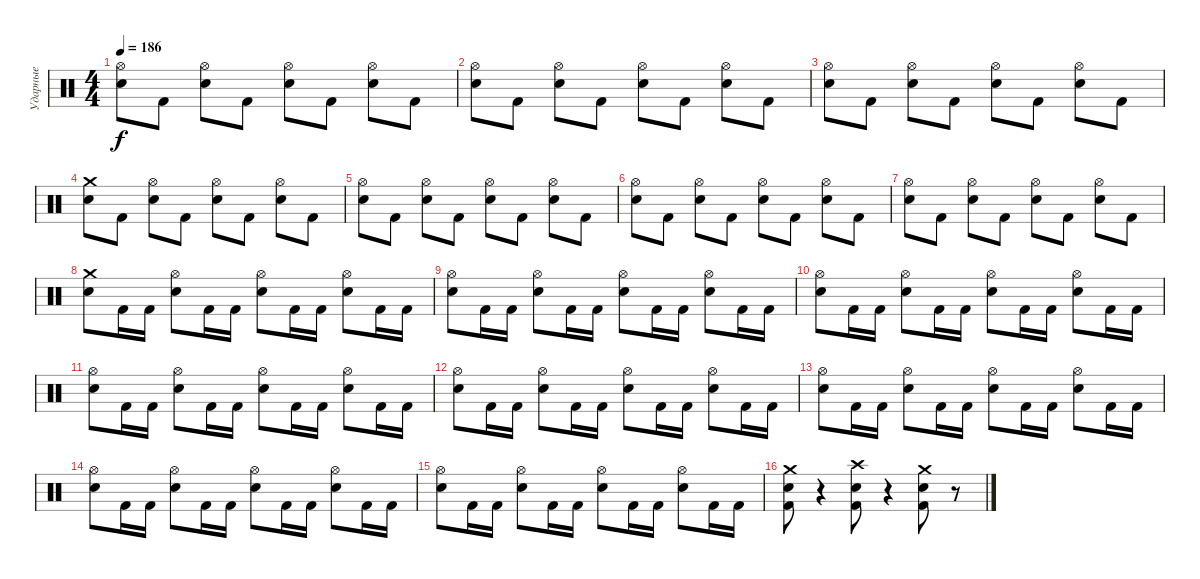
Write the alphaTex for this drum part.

\track ("Ударные" "Ударные") {instrument percussion}
\staff {score}
\articulation defaults
\ts (4 4)
\tempo 186
\clef neutral
\ks c
("Snare (hit) 2" "Hi-Hat (open)").8{dy f} "Kick (hit) 2".8 ("Snare (hit) 2" "Hi-Hat (open)").8 "Kick (hit) 2".8 ("Snare (hit) 2" "Hi-Hat (open)").8 "Kick (hit) 2".8 ("Snare (hit) 2" "Hi-Hat (open)").8 "Kick (hit) 2".8 |
("Snare (hit) 2" "Hi-Hat (open)").8 "Kick (hit) 2".8 ("Snare (hit) 2" "Hi-Hat (open)").8 "Kick (hit) 2".8 ("Snare (hit) 2" "Hi-Hat (open)").8 "Kick (hit) 2".8 ("Snare (hit) 2" "Hi-Hat (open)").8 "Kick (hit) 2".8 |
("Snare (hit) 2" "Hi-Hat (open)").8 "Kick (hit) 2".8 ("Snare (hit) 2" "Hi-Hat (open)").8 "Kick (hit) 2".8 ("Snare (hit) 2" "Hi-Hat (open)").8 "Kick (hit) 2".8 ("Snare (hit) 2" "Hi-Hat (open)").8 "Kick (hit) 2".8 |
("Snare (hit) 2" "Crash medium (hit)").8 "Kick (hit) 2".8 ("Snare (hit) 2" "Hi-Hat (open)").8 "Kick (hit) 2".8 ("Snare (hit) 2" "Hi-Hat (open)").8 "Kick (hit) 2".8 ("Snare (hit) 2" "Hi-Hat (open)").8 "Kick (hit) 2".8 |
("Snare (hit) 2" "Hi-Hat (open)").8 "Kick (hit) 2".8 ("Snare (hit) 2" "Hi-Hat (open)").8 "Kick (hit) 2".8 ("Snare (hit) 2" "Hi-Hat (open)").8 "Kick (hit) 2".8 ("Snare (hit) 2" "Hi-Hat (open)").8 "Kick (hit) 2".8 |
("Snare (hit) 2" "Hi-Hat (open)").8 "Kick (hit) 2".8 ("Snare (hit) 2" "Hi-Hat (open)").8 "Kick (hit) 2".8 ("Snare (hit) 2" "Hi-Hat (open)").8 "Kick (hit) 2".8 ("Snare (hit) 2" "Hi-Hat (open)").8 "Kick (hit) 2".8 |
("Snare (hit) 2" "Hi-Hat (open)").8 "Kick (hit) 2".8 ("Snare (hit) 2" "Hi-Hat (open)").8 "Kick (hit) 2".8 ("Snare (hit) 2" "Hi-Hat (open)").8 "Kick (hit) 2".8 ("Snare (hit) 2" "Hi-Hat (open)").8 "Kick (hit) 2".8 |
("Snare (hit) 2" "Crash medium (hit)").8 "Kick (hit) 2".16 "Kick (hit) 2".16 ("Snare (hit) 2" "Hi-Hat (open)").8 "Kick (hit) 2".16 "Kick (hit) 2".16 ("Snare (hit) 2" "Hi-Hat (open)").8 "Kick (hit) 2".16 "Kick (hit) 2".16 ("Snare (hit) 2" "Hi-Hat (open)").8 "Kick (hit) 2".16 "Kick (hit) 2".16 |
("Snare (hit) 2" "Hi-Hat (open)").8 "Kick (hit) 2".16 "Kick (hit) 2".16 ("Snare (hit) 2" "Hi-Hat (open)").8 "Kick (hit) 2".16 "Kick (hit) 2".16 ("Snare (hit) 2" "Hi-Hat (open)").8 "Kick (hit) 2".16 "Kick (hit) 2".16 ("Snare (hit) 2" "Hi-Hat (open)").8 "Kick (hit) 2".16 "Kick (hit) 2".16 |
("Snare (hit) 2" "Hi-Hat (open)").8 "Kick (hit) 2".16 "Kick (hit) 2".16 ("Snare (hit) 2" "Hi-Hat (open)").8 "Kick (hit) 2".16 "Kick (hit) 2".16 ("Snare (hit) 2" "Hi-Hat (open)").8 "Kick (hit) 2".16 "Kick (hit) 2".16 ("Snare (hit) 2" "Hi-Hat (open)").8 "Kick (hit) 2".16 "Kick (hit) 2".16 |
("Snare (hit) 2" "Hi-Hat (open)").8 "Kick (hit) 2".16 "Kick (hit) 2".16 ("Snare (hit) 2" "Hi-Hat (open)").8 "Kick (hit) 2".16 "Kick (hit) 2".16 ("Snare (hit) 2" "Hi-Hat (open)").8 "Kick (hit) 2".16 "Kick (hit) 2".16 ("Snare (hit) 2" "Hi-Hat (open)").8 "Kick (hit) 2".16 "Kick (hit) 2".16 |
("Snare (hit) 2" "Hi-Hat (open)").8 "Kick (hit) 2".16 "Kick (hit) 2".16 ("Snare (hit) 2" "Hi-Hat (open)").8 "Kick (hit) 2".16 "Kick (hit) 2".16 ("Snare (hit) 2" "Hi-Hat (open)").8 "Kick (hit) 2".16 "Kick (hit) 2".16 ("Snare (hit) 2" "Hi-Hat (open)").8 "Kick (hit) 2".16 "Kick (hit) 2".16 |
("Snare (hit) 2" "Hi-Hat (open)").8 "Kick (hit) 2".16 "Kick (hit) 2".16 ("Snare (hit) 2" "Hi-Hat (open)").8 "Kick (hit) 2".16 "Kick (hit) 2".16 ("Snare (hit) 2" "Hi-Hat (open)").8 "Kick (hit) 2".16 "Kick (hit) 2".16 ("Snare (hit) 2" "Hi-Hat (open)").8 "Kick (hit) 2".16 "Kick (hit) 2".16 |
("Snare (hit) 2" "Hi-Hat (open)").8 "Kick (hit) 2".16 "Kick (hit) 2".16 ("Snare (hit) 2" "Hi-Hat (open)").8 "Kick (hit) 2".16 "Kick (hit) 2".16 ("Snare (hit) 2" "Hi-Hat (open)").8 "Kick (hit) 2".16 "Kick (hit) 2".16 ("Snare (hit) 2" "Hi-Hat (open)").8 "Kick (hit) 2".16 "Kick (hit) 2".16 |
("Snare (hit) 2" "Hi-Hat (open)").8 "Kick (hit) 2".16 "Kick (hit) 2".16 ("Snare (hit) 2" "Hi-Hat (open)").8 "Kick (hit) 2".16 "Kick (hit) 2".16 ("Snare (hit) 2" "Hi-Hat (open)").8 "Kick (hit) 2".16 "Kick (hit) 2".16 ("Snare (hit) 2" "Hi-Hat (open)").8 "Kick (hit) 2".16 "Kick (hit) 2".16 |
("Kick (hit) 2" "Snare (hit) 2" "Crash medium (hit)").8 r.4 ("Kick (hit) 2" "Snare (hit) 2" "Crash high (hit)").8 r.4 ("Kick (hit) 2" "Snare (hit) 2" "Crash medium (hit)").8 r.8
